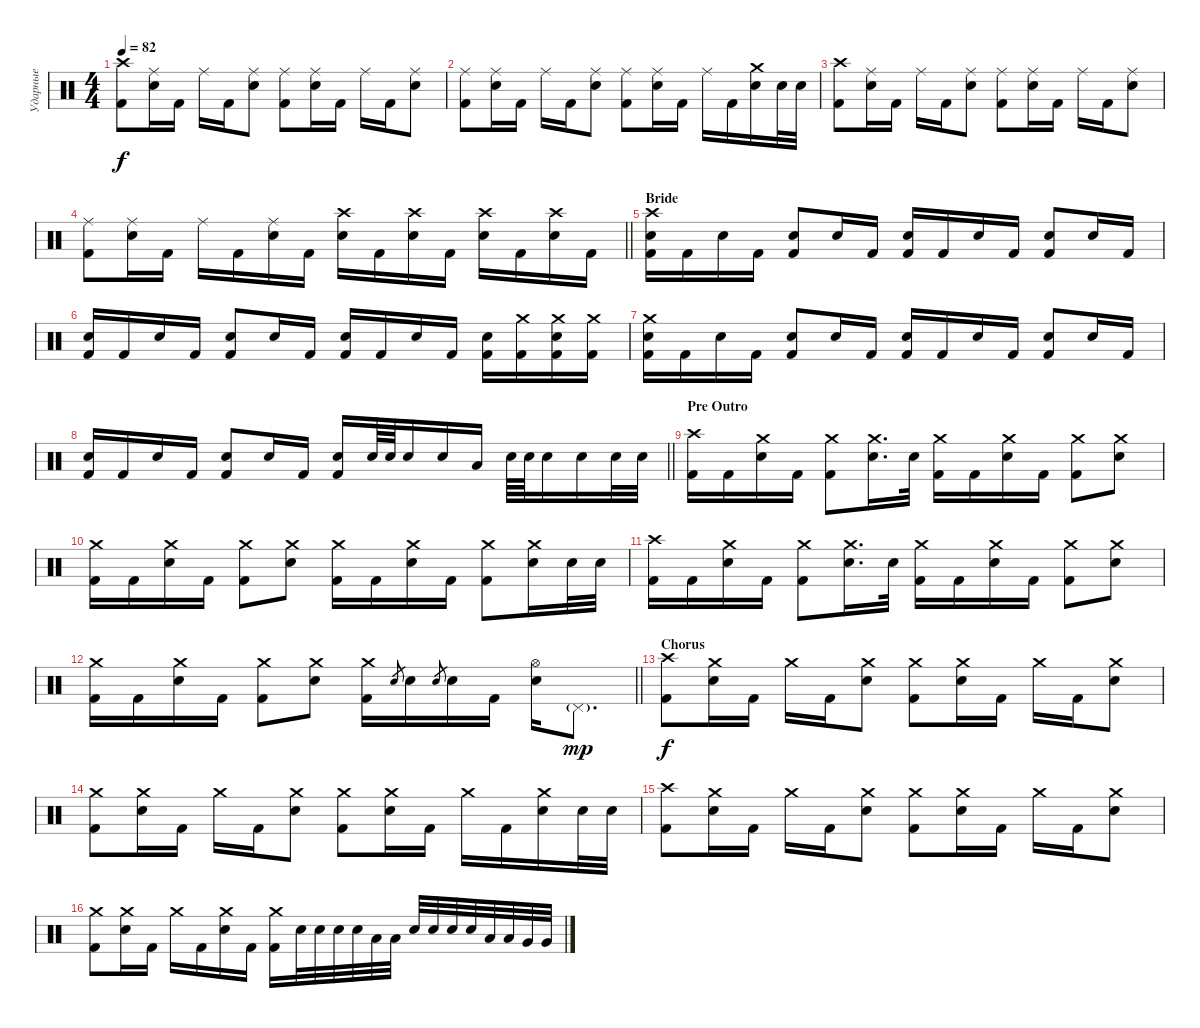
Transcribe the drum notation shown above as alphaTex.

\track ("Ударные" "Ударные") {instrument percussion}
\staff {score}
\articulation defaults
\ts (4 4)
\tempo 82
\clef neutral
\ks c
("Crash high (hit)" "Kick (hit) 2").8{dy f} ("Ride (middle)" "Snare (hit) 2").16 "Kick (hit) 2".16 "Ride (middle)".16 "Kick (hit) 2".16 ("Ride (middle)" "Snare (hit) 2").8 ("Ride (middle)" "Kick (hit) 2").8 ("Ride (middle)" "Snare (hit) 2").16 "Kick (hit) 2".16 "Ride (middle)".16 "Kick (hit) 2".16 ("Ride (middle)" "Snare (hit) 2").8 |
("Ride (middle)" "Kick (hit) 2").8 ("Ride (middle)" "Snare (hit) 2").16 "Kick (hit) 2".16 "Ride (middle)".16 "Kick (hit) 2".16 ("Ride (middle)" "Snare (hit) 2").8 ("Ride (middle)" "Kick (hit) 2").8 ("Ride (middle)" "Snare (hit) 2").16 "Kick (hit) 2".16 "Ride (middle)".16 "Kick (hit) 2".16 ("Crash medium (hit)" "Snare (hit) 2").16 "Snare (hit) 2".32 "Snare (hit) 2".32 |
("Crash high (hit)" "Kick (hit) 2").8 ("Ride (middle)" "Snare (hit) 2").16 "Kick (hit) 2".16 "Ride (middle)".16 "Kick (hit) 2".16 ("Ride (middle)" "Snare (hit) 2").8 ("Ride (middle)" "Kick (hit) 2").8 ("Ride (middle)" "Snare (hit) 2").16 "Kick (hit) 2".16 "Ride (middle)".16 "Kick (hit) 2".16 ("Ride (middle)" "Snare (hit) 2").8 |
\barLineRight lightlight
("Ride (middle)" "Kick (hit) 2").8 ("Ride (middle)" "Snare (hit) 2").16 "Kick (hit) 2".16 "Ride (middle)".16 "Kick (hit) 2".16 ("Ride (middle)" "Snare (hit) 2").16 "Kick (hit) 2".16 ("Crash high (hit)" "Snare (hit) 2").16 "Kick (hit) 2".16 ("Crash high (hit)" "Snare (hit) 2").16 "Kick (hit) 2".16 ("Crash high (hit)" "Snare (hit) 2").16 "Kick (hit) 2".16 ("Crash high (hit)" "Snare (hit) 2").16 "Kick (hit) 2".16 |
\section ("" "Bride")
("Crash high (hit)" "Snare (hit) 2" "Kick (hit) 2").16 "Kick (hit) 2".16 "Snare (hit) 2".16 "Kick (hit) 2".16 ("Snare (hit) 2" "Kick (hit) 2").8 "Snare (hit) 2".16 "Kick (hit) 2".16 ("Snare (hit) 2" "Kick (hit) 2").16 "Kick (hit) 2".16 "Snare (hit) 2".16 "Kick (hit) 2".16 ("Snare (hit) 2" "Kick (hit) 2").8 "Snare (hit) 2".16 "Kick (hit) 2".16 |
("Snare (hit) 2" "Kick (hit) 2").16 "Kick (hit) 2".16 "Snare (hit) 2".16 "Kick (hit) 2".16 ("Snare (hit) 2" "Kick (hit) 2").8 "Snare (hit) 2".16 "Kick (hit) 2".16 ("Snare (hit) 2" "Kick (hit) 2").16 "Kick (hit) 2".16 "Snare (hit) 2".16 "Kick (hit) 2".16 ("Snare (hit) 2" "Kick (hit) 2").16 ("Crash medium (hit)" "Kick (hit) 2").16 ("Crash medium (hit)" "Snare (hit) 2" "Kick (hit) 2").16 ("Crash medium (hit)" "Kick (hit) 2").16 |
("Crash medium (hit)" "Snare (hit) 2" "Kick (hit) 2").16 "Kick (hit) 2".16 "Snare (hit) 2".16 "Kick (hit) 2".16 ("Snare (hit) 2" "Kick (hit) 2").8 "Snare (hit) 2".16 "Kick (hit) 2".16 ("Snare (hit) 2" "Kick (hit) 2").16 "Kick (hit) 2".16 "Snare (hit) 2".16 "Kick (hit) 2".16 ("Snare (hit) 2" "Kick (hit) 2").8 "Snare (hit) 2".16 "Kick (hit) 2".16 |
\barLineRight lightlight
("Snare (hit) 2" "Kick (hit) 2").16 "Kick (hit) 2".16 "Snare (hit) 2".16 "Kick (hit) 2".16 ("Snare (hit) 2" "Kick (hit) 2").8 "Snare (hit) 2".16 "Kick (hit) 2".16 ("Snare (hit) 2" "Kick (hit) 2").16 "Snare (hit) 2".64 "Snare (hit) 2".64 "Snare (hit) 2".16 "Snare (hit) 2".16 "Low Tom (hit)".16 "Snare (hit) 2".64 "Snare (hit) 2".64 "Snare (hit) 2".16 "Snare (hit) 2".16 "Snare (hit) 2".32 "Snare (hit) 2".32 |
\section ("" "Pre Outro")
("Crash high (hit)" "Kick (hit) 2").16 "Kick (hit) 2".16 ("Crash medium (hit)" "Snare (hit) 2").16 "Kick (hit) 2".16 ("Crash medium (hit)" "Kick (hit) 2").8 ("Crash medium (hit)" "Snare (hit) 2").16{d} "Snare (hit) 2".32 ("Crash medium (hit)" "Kick (hit) 2").16 "Kick (hit) 2".16 ("Crash medium (hit)" "Snare (hit) 2").16 "Kick (hit) 2".16 ("Crash medium (hit)" "Kick (hit) 2").8 ("Crash medium (hit)" "Snare (hit) 2").8 |
("Crash medium (hit)" "Kick (hit) 2").16 "Kick (hit) 2".16 ("Crash medium (hit)" "Snare (hit) 2").16 "Kick (hit) 2".16 ("Crash medium (hit)" "Kick (hit) 2").8 ("Crash medium (hit)" "Snare (hit) 2").8 ("Crash medium (hit)" "Kick (hit) 2").16 "Kick (hit) 2".16 ("Crash medium (hit)" "Snare (hit) 2").16 "Kick (hit) 2".16 ("Crash medium (hit)" "Kick (hit) 2").8 ("Crash medium (hit)" "Snare (hit) 2").16 "Snare (hit) 2".32 "Snare (hit) 2".32 |
("Crash high (hit)" "Kick (hit) 2").16 "Kick (hit) 2".16 ("Crash medium (hit)" "Snare (hit) 2").16 "Kick (hit) 2".16 ("Crash medium (hit)" "Kick (hit) 2").8 ("Crash medium (hit)" "Snare (hit) 2").16{d} "Snare (hit) 2".32 ("Crash medium (hit)" "Kick (hit) 2").16 "Kick (hit) 2".16 ("Crash medium (hit)" "Snare (hit) 2").16 "Kick (hit) 2".16 ("Crash medium (hit)" "Kick (hit) 2").8 ("Crash medium (hit)" "Snare (hit) 2").8 |
\barLineRight lightlight
("Crash medium (hit)" "Kick (hit) 2").16 "Kick (hit) 2".16 ("Crash medium (hit)" "Snare (hit) 2").16 "Kick (hit) 2".16 ("Crash medium (hit)" "Kick (hit) 2").8 ("Crash medium (hit)" "Snare (hit) 2").8 ("Crash medium (hit)" "Kick (hit) 2").16 "Snare (hit) 2".8{gr} "Snare (hit) 2".16 "Snare (hit) 2".8{gr} "Snare (hit) 2".16 "Kick (hit) 2".16 ("Hi-Hat (open)" "Snare (hit) 2").16 "Pedal Hi-Hat (hit)"{g}.8{d dy mp} |
\section ("" "Chorus")
("Crash high (hit)" "Kick (hit) 2").8{dy f} ("Crash medium (hit)" "Snare (hit) 2").16 "Kick (hit) 2".16 "Crash medium (hit)".16 "Kick (hit) 2".16 ("Crash medium (hit)" "Snare (hit) 2").8 ("Crash medium (hit)" "Kick (hit) 2").8 ("Crash medium (hit)" "Snare (hit) 2").16 "Kick (hit) 2".16 "Crash medium (hit)".16 "Kick (hit) 2".16 ("Crash medium (hit)" "Snare (hit) 2").8 |
("Crash medium (hit)" "Kick (hit) 2").8 ("Crash medium (hit)" "Snare (hit) 2").16 "Kick (hit) 2".16 "Crash medium (hit)".16 "Kick (hit) 2".16 ("Crash medium (hit)" "Snare (hit) 2").8 ("Crash medium (hit)" "Kick (hit) 2").8 ("Crash medium (hit)" "Snare (hit) 2").16 "Kick (hit) 2".16 "Crash medium (hit)".16 "Kick (hit) 2".16 ("Crash medium (hit)" "Snare (hit) 2").16 "Snare (hit) 2".32 "Snare (hit) 2".32 |
("Crash high (hit)" "Kick (hit) 2").8 ("Crash medium (hit)" "Snare (hit) 2").16 "Kick (hit) 2".16 "Crash medium (hit)".16 "Kick (hit) 2".16 ("Crash medium (hit)" "Snare (hit) 2").8 ("Crash medium (hit)" "Kick (hit) 2").8 ("Crash medium (hit)" "Snare (hit) 2").16 "Kick (hit) 2".16 "Crash medium (hit)".16 "Kick (hit) 2".16 ("Crash medium (hit)" "Snare (hit) 2").8 |
("Crash medium (hit)" "Kick (hit) 2").8 ("Crash medium (hit)" "Snare (hit) 2").16 "Kick (hit) 2".16 "Crash medium (hit)".16 "Kick (hit) 2".16 ("Crash medium (hit)" "Snare (hit) 2").16 "Kick (hit) 2".16 ("Crash medium (hit)" "Kick (hit) 2").16 "Snare (hit) 2".32 "Snare (hit) 2".32 "Snare (hit) 2".32 "Snare (hit) 2".32 "Low Tom (hit)".32 "Low Tom (hit)".32 "Snare (hit) 2".32 "Snare (hit) 2".32 "Snare (hit) 2".32 "Snare (hit) 2".32 "Low Tom (hit)".32 "Low Tom (hit)".32 "Very Low Tom (hit)".32 "Very Low Tom (hit)".32
